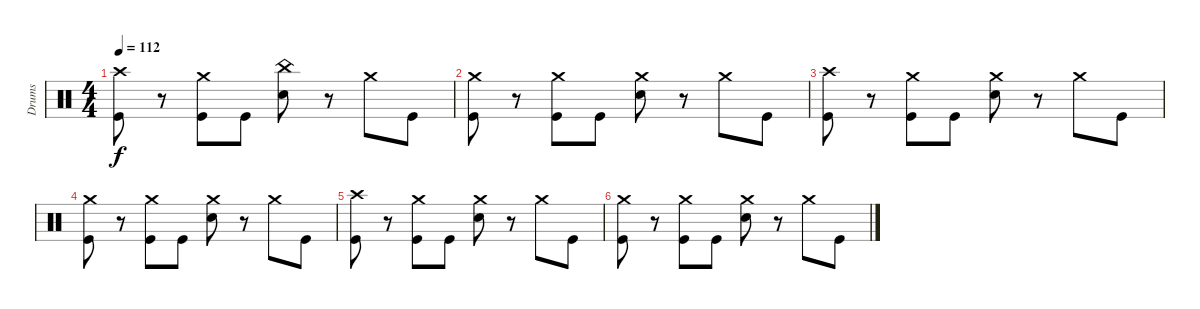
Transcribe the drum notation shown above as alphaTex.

\track ("Drums" "Drums") {instrument percussion}
\staff {score}
\articulation defaults
\ts (4 4)
\tempo 112
\clef neutral
\ks c
("Crash high (hit)" "Kick (hit)").8{dy f} r.8 ("Crash medium (hit)" "Kick (hit)").8 "Kick (hit)".8 ("China (hit)" "Snare (hit) 2").8 r.8 "Crash medium (hit)".8 "Kick (hit)".8 |
("Crash medium (hit)" "Kick (hit)").8 r.8 ("Crash medium (hit)" "Kick (hit)").8 "Kick (hit)".8 ("Crash medium (hit)" "Snare (hit) 2").8 r.8 "Crash medium (hit)".8 "Kick (hit)".8 |
("Crash high (hit)" "Kick (hit)").8{volume 0} r.8 ("Crash medium (hit)" "Kick (hit)").8 "Kick (hit)".8 ("Crash medium (hit)" "Snare (hit) 2").8 r.8 "Crash medium (hit)".8 "Kick (hit)".8 |
("Crash medium (hit)" "Kick (hit)").8 r.8 ("Crash medium (hit)" "Kick (hit)").8 "Kick (hit)".8 ("Crash medium (hit)" "Snare (hit) 2").8 r.8 "Crash medium (hit)".8 "Kick (hit)".8 |
("Crash high (hit)" "Kick (hit)").8 r.8 ("Crash medium (hit)" "Kick (hit)").8 "Kick (hit)".8 ("Crash medium (hit)" "Snare (hit) 2").8 r.8 "Crash medium (hit)".8 "Kick (hit)".8 |
("Crash medium (hit)" "Kick (hit)").8 r.8 ("Crash medium (hit)" "Kick (hit)").8 "Kick (hit)".8 ("Crash medium (hit)" "Snare (hit) 2").8 r.8 "Crash medium (hit)".8 "Kick (hit)".8
